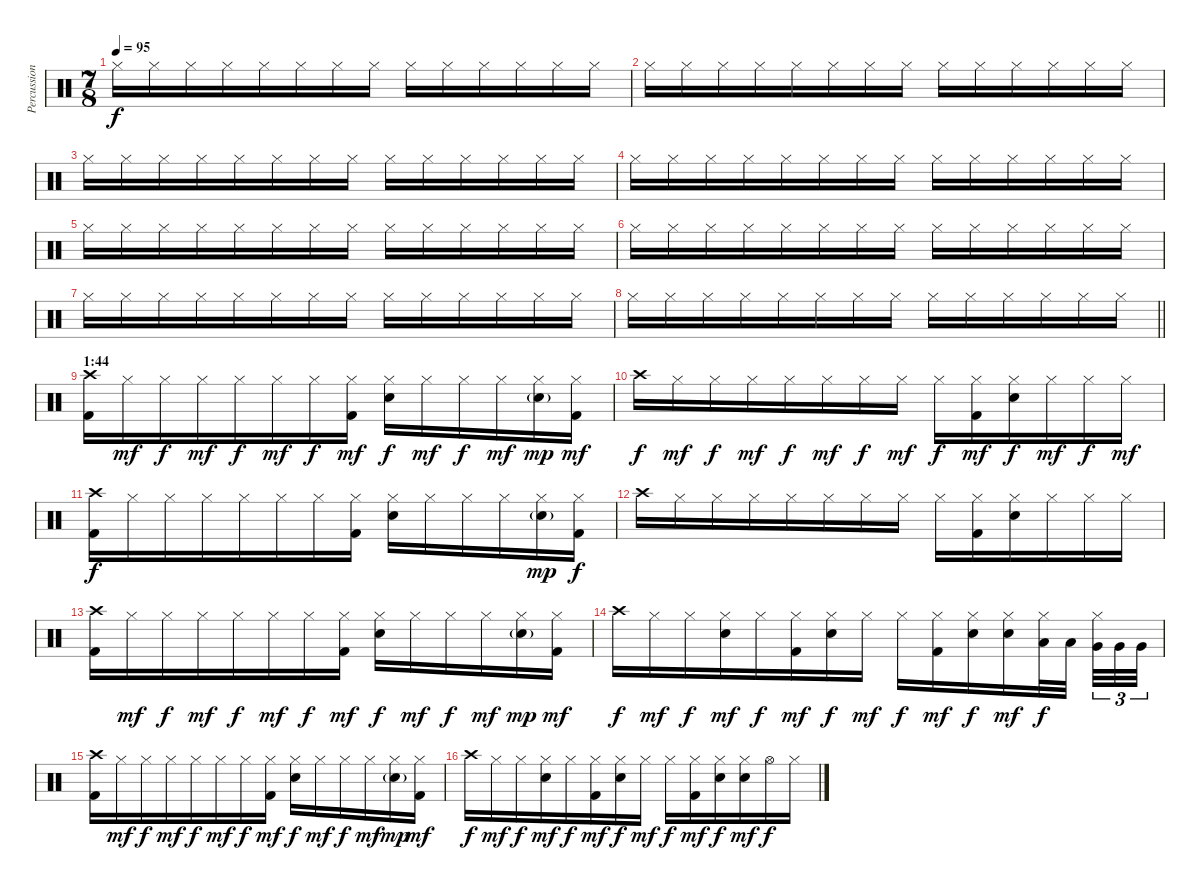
\track ("Percussion" "Percussion") {instrument percussion}
\staff {score}
\articulation defaults
\ts (7 8)
\tempo 95
\clef neutral
\ks c "Hi-Hat (closed)".16{dy f balance 0} "Hi-Hat (closed)".16 "Hi-Hat (closed)".16{balance 16} "Hi-Hat (closed)".16 "Hi-Hat (closed)".16{balance 0} "Hi-Hat (closed)".16 "Hi-Hat (closed)".16{balance 16} "Hi-Hat (closed)".16 "Hi-Hat (closed)".16{balance 0} "Hi-Hat (closed)".16 "Hi-Hat (closed)".16{balance 16} "Hi-Hat (closed)".16 "Hi-Hat (closed)".16{balance 0} "Hi-Hat (closed)".16
|
"Hi-Hat (closed)".16{balance 16} "Hi-Hat (closed)".16 "Hi-Hat (closed)".16{balance 0} "Hi-Hat (closed)".16 "Hi-Hat (closed)".16{balance 16} "Hi-Hat (closed)".16 "Hi-Hat (closed)".16{balance 0} "Hi-Hat (closed)".16 "Hi-Hat (closed)".16{balance 16} "Hi-Hat (closed)".16 "Hi-Hat (closed)".16{balance 0} "Hi-Hat (closed)".16 "Hi-Hat (closed)".16{balance 16} "Hi-Hat (closed)".16 |
"Hi-Hat (closed)".16{balance 0} "Hi-Hat (closed)".16 "Hi-Hat (closed)".16{balance 16} "Hi-Hat (closed)".16 "Hi-Hat (closed)".16{balance 0} "Hi-Hat (closed)".16 "Hi-Hat (closed)".16{balance 16} "Hi-Hat (closed)".16 "Hi-Hat (closed)".16{balance 0} "Hi-Hat (closed)".16 "Hi-Hat (closed)".16{balance 16} "Hi-Hat (closed)".16 "Hi-Hat (closed)".16{balance 0} "Hi-Hat (closed)".16 |
"Hi-Hat (closed)".16{balance 16} "Hi-Hat (closed)".16 "Hi-Hat (closed)".16{balance 0} "Hi-Hat (closed)".16 "Hi-Hat (closed)".16{balance 16} "Hi-Hat (closed)".16 "Hi-Hat (closed)".16{balance 0} "Hi-Hat (closed)".16 "Hi-Hat (closed)".16{balance 16} "Hi-Hat (closed)".16 "Hi-Hat (closed)".16{balance 0} "Hi-Hat (closed)".16 "Hi-Hat (closed)".16{balance 16} "Hi-Hat (closed)".16 |
"Hi-Hat (closed)".16{balance 0} "Hi-Hat (closed)".16 "Hi-Hat (closed)".16{balance 16} "Hi-Hat (closed)".16 "Hi-Hat (closed)".16{balance 0} "Hi-Hat (closed)".16 "Hi-Hat (closed)".16{balance 16} "Hi-Hat (closed)".16 "Hi-Hat (closed)".16{balance 0} "Hi-Hat (closed)".16 "Hi-Hat (closed)".16{balance 16} "Hi-Hat (closed)".16 "Hi-Hat (closed)".16{balance 0} "Hi-Hat (closed)".16 |
"Hi-Hat (closed)".16{balance 16} "Hi-Hat (closed)".16 "Hi-Hat (closed)".16{balance 0} "Hi-Hat (closed)".16 "Hi-Hat (closed)".16{balance 16} "Hi-Hat (closed)".16 "Hi-Hat (closed)".16{balance 0} "Hi-Hat (closed)".16 "Hi-Hat (closed)".16{balance 16} "Hi-Hat (closed)".16 "Hi-Hat (closed)".16{balance 0} "Hi-Hat (closed)".16 "Hi-Hat (closed)".16{balance 16} "Hi-Hat (closed)".16 |
"Hi-Hat (closed)".16{balance 0} "Hi-Hat (closed)".16 "Hi-Hat (closed)".16{balance 16} "Hi-Hat (closed)".16 "Hi-Hat (closed)".16{balance 0} "Hi-Hat (closed)".16 "Hi-Hat (closed)".16{balance 16} "Hi-Hat (closed)".16 "Hi-Hat (closed)".16{balance 0} "Hi-Hat (closed)".16 "Hi-Hat (closed)".16{balance 16} "Hi-Hat (closed)".16 "Hi-Hat (closed)".16{balance 0} "Hi-Hat (closed)".16 |
\barLineRight lightlight "Hi-Hat (closed)".16{balance 16} "Hi-Hat (closed)".16 "Hi-Hat (closed)".16{balance 0} "Hi-Hat (closed)".16 "Hi-Hat (closed)".16{balance 16} "Hi-Hat (closed)".16 "Hi-Hat (closed)".16{balance 0} "Hi-Hat (closed)".16 "Hi-Hat (closed)".16{balance 16} "Hi-Hat (closed)".16 "Hi-Hat (closed)".16{balance 0} "Hi-Hat (closed)".16 "Hi-Hat (closed)".16{balance 16} "Hi-Hat (closed)".16
|
\section ("" "1:44")
("Crash high (hit)" "Kick (hit) 2").16{balance 8} "Hi-Hat (closed)".16{dy mf} "Hi-Hat (closed)".16{dy f} "Hi-Hat (closed)".16{dy mf} "Hi-Hat (closed)".16{dy f} "Hi-Hat (closed)".16{dy mf} "Hi-Hat (closed)".16{dy f} ("Hi-Hat (closed)" "Kick (hit) 2").16{dy mf} ("Hi-Hat (closed)" "Electric Snare (hit)").16{dy f} "Hi-Hat (closed)".16{dy mf} "Hi-Hat (closed)".16{dy f} "Hi-Hat (closed)".16{dy mf} ("Hi-Hat (closed)" "Electric Snare (hit)"{g}).16{dy mp} ("Hi-Hat (closed)" "Kick (hit) 2").16{dy mf} |
"Crash high (hit)".16{dy f} "Hi-Hat (closed)".16{dy mf} "Hi-Hat (closed)".16{dy f} "Hi-Hat (closed)".16{dy mf} "Hi-Hat (closed)".16{dy f} "Hi-Hat (closed)".16{dy mf} "Hi-Hat (closed)".16{dy f} "Hi-Hat (closed)".16{dy mf} "Hi-Hat (closed)".16{dy f} ("Hi-Hat (closed)" "Kick (hit) 2").16{dy mf} ("Hi-Hat (closed)" "Electric Snare (hit)").16{dy f} "Hi-Hat (closed)".16{dy mf} "Hi-Hat (closed)".16{dy f} "Hi-Hat (closed)".16{dy mf} |
("Crash high (hit)" "Kick (hit) 2").16{dy f} "Hi-Hat (closed)".16 "Hi-Hat (closed)".16 "Hi-Hat (closed)".16 "Hi-Hat (closed)".16 "Hi-Hat (closed)".16 "Hi-Hat (closed)".16 ("Hi-Hat (closed)" "Kick (hit) 2").16 ("Hi-Hat (closed)" "Electric Snare (hit)").16 "Hi-Hat (closed)".16 "Hi-Hat (closed)".16 "Hi-Hat (closed)".16 ("Hi-Hat (closed)" "Electric Snare (hit)"{g}).16{dy mp} ("Hi-Hat (closed)" "Kick (hit) 2").16{dy f} |
"Crash high (hit)".16 "Hi-Hat (closed)".16 "Hi-Hat (closed)".16 "Hi-Hat (closed)".16 "Hi-Hat (closed)".16 "Hi-Hat (closed)".16 "Hi-Hat (closed)".16 "Hi-Hat (closed)".16 "Hi-Hat (closed)".16 ("Hi-Hat (closed)" "Kick (hit) 2").16 ("Hi-Hat (closed)" "Electric Snare (hit)").16 "Hi-Hat (closed)".16 "Hi-Hat (closed)".16 "Hi-Hat (closed)".16 |
("Crash high (hit)" "Kick (hit) 2").16 "Hi-Hat (closed)".16{dy mf} "Hi-Hat (closed)".16{dy f} "Hi-Hat (closed)".16{dy mf} "Hi-Hat (closed)".16{dy f} "Hi-Hat (closed)".16{dy mf} "Hi-Hat (closed)".16{dy f} ("Hi-Hat (closed)" "Kick (hit) 2").16{dy mf} ("Hi-Hat (closed)" "Electric Snare (hit)").16{dy f} "Hi-Hat (closed)".16{dy mf} "Hi-Hat (closed)".16{dy f} "Hi-Hat (closed)".16{dy mf} ("Hi-Hat (closed)" "Electric Snare (hit)"{g}).16{dy mp} ("Hi-Hat (closed)" "Kick (hit) 2").16{dy mf} |
"Crash high (hit)".16{dy f} "Hi-Hat (closed)".16{dy mf} "Hi-Hat (closed)".16{dy f} ("Hi-Hat (closed)" "Electric Snare (hit)").16{dy mf} "Hi-Hat (closed)".16{dy f} ("Hi-Hat (closed)" "Kick (hit) 2").16{dy mf} ("Hi-Hat (closed)" "Electric Snare (hit)").16{dy f} "Hi-Hat (closed)".16{dy mf} "Hi-Hat (closed)".16{dy f} ("Hi-Hat (closed)" "Kick (hit) 2").16{dy mf} ("Hi-Hat (closed)" "Electric Snare (hit)").16{dy f} ("Hi-Hat (closed)" "Electric Snare (hit)").16{dy mf} ("Hi-Hat (closed)" "Low Tom (hit)").32{dy f} "Low Tom (hit)".32{beam splitsecondary} ("Hi-Hat (closed)" "Very Low Tom (hit)").32{tu (3 2)} "Very Low Tom (hit)".32{tu (3 2)} "Very Low Tom (hit)".32{tu (3 2)} |
("Crash high (hit)" "Kick (hit) 2").16 "Hi-Hat (closed)".16{dy mf} "Hi-Hat (closed)".16{dy f} "Hi-Hat (closed)".16{dy mf} "Hi-Hat (closed)".16{dy f} "Hi-Hat (closed)".16{dy mf} "Hi-Hat (closed)".16{dy f} ("Hi-Hat (closed)" "Kick (hit) 2").16{dy mf} ("Hi-Hat (closed)" "Electric Snare (hit)").16{dy f} "Hi-Hat (closed)".16{dy mf} "Hi-Hat (closed)".16{dy f} "Hi-Hat (closed)".16{dy mf} ("Hi-Hat (closed)" "Electric Snare (hit)"{g}).16{dy mp} ("Hi-Hat (closed)" "Kick (hit) 2").16{dy mf} |
"Crash high (hit)".16{dy f} "Hi-Hat (closed)".16{dy mf} "Hi-Hat (closed)".16{dy f} ("Hi-Hat (closed)" "Electric Snare (hit)").16{dy mf} "Hi-Hat (closed)".16{dy f} ("Hi-Hat (closed)" "Kick (hit) 2").16{dy mf} ("Hi-Hat (closed)" "Electric Snare (hit)").16{dy f} "Hi-Hat (closed)".16{dy mf} "Hi-Hat (closed)".16{dy f} ("Hi-Hat (closed)" "Kick (hit) 2").16{dy mf} ("Hi-Hat (closed)" "Electric Snare (hit)").16{dy f} ("Hi-Hat (closed)" "Electric Snare (hit)").16{dy mf} "Hi-Hat (open)".16{dy f} "Hi-Hat (closed)".16
